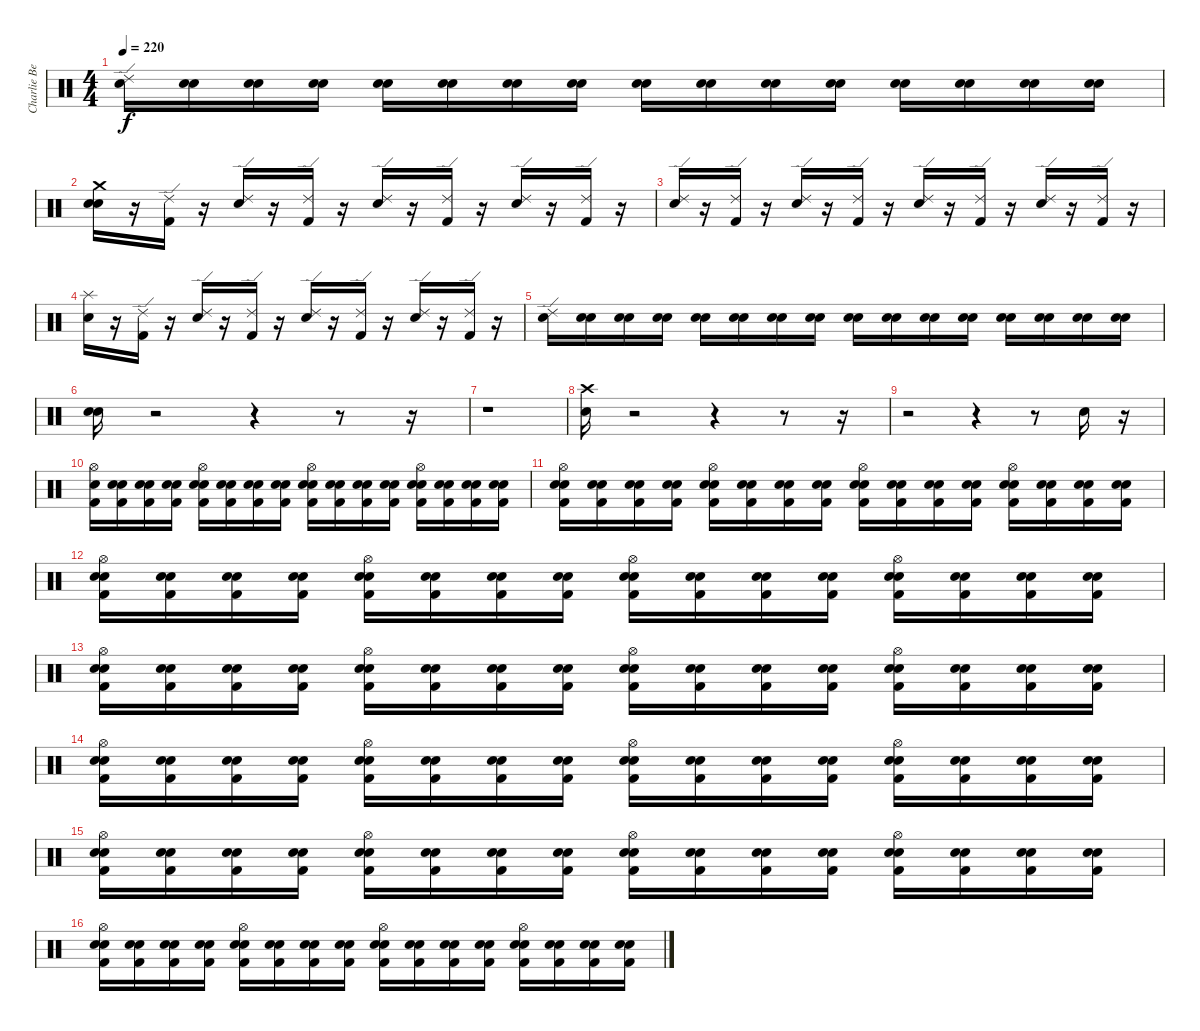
\track ("Charlie Benante" "Charlie Be") {instrument percussion}
\staff {score}
\articulation defaults
\ts (4 4)
\tempo 220
\clef neutral
\ks c
("Snare (hit) 2" "Ride (edge) 2").16{dy f} ("Snare (hit)" "Snare (hit) 2").16 ("Snare (hit)" "Snare (hit) 2").16 ("Snare (hit)" "Snare (hit) 2").16 ("Snare (hit)" "Snare (hit) 2").16 ("Snare (hit)" "Snare (hit) 2").16 ("Snare (hit)" "Snare (hit) 2").16 ("Snare (hit)" "Snare (hit) 2").16 ("Snare (hit)" "Snare (hit) 2").16 ("Snare (hit)" "Snare (hit) 2").16 ("Snare (hit)" "Snare (hit) 2").16 ("Snare (hit)" "Snare (hit) 2").16 ("Snare (hit)" "Snare (hit) 2").16 ("Snare (hit)" "Snare (hit) 2").16 ("Snare (hit)" "Snare (hit) 2").16 ("Snare (hit)" "Snare (hit) 2").16 |
("Snare (hit)" "Snare (hit) 2" "Crash medium (hit)").16 r.16 ("Kick (hit) 2" "Ride (edge) 2").16 r.16 ("Snare (hit) 2" "Ride (edge) 2").16 r.16 ("Kick (hit) 2" "Ride (edge) 2").16 r.16 ("Snare (hit) 2" "Ride (edge) 2").16 r.16 ("Kick (hit) 2" "Ride (edge) 2").16 r.16 ("Snare (hit) 2" "Ride (edge) 2").16 r.16 ("Kick (hit) 2" "Ride (edge) 2").16 r.16 |
("Snare (hit) 2" "Ride (edge) 2").16 r.16 ("Kick (hit) 2" "Ride (edge) 2").16 r.16 ("Snare (hit) 2" "Ride (edge) 2").16 r.16 ("Kick (hit) 2" "Ride (edge) 2").16 r.16 ("Snare (hit) 2" "Ride (edge) 2").16 r.16 ("Kick (hit) 2" "Ride (edge) 2").16 r.16 ("Snare (hit) 2" "Ride (edge) 2").16 r.16 ("Kick (hit) 2" "Ride (edge) 2").16 r.16 |
("Snare (hit) 2" "Splash (hit)").16 r.16 ("Kick (hit) 2" "Ride (edge) 2").16 r.16 ("Snare (hit) 2" "Ride (edge) 2").16 r.16 ("Kick (hit) 2" "Ride (edge) 2").16 r.16 ("Snare (hit) 2" "Ride (edge) 2").16 r.16 ("Kick (hit) 2" "Ride (edge) 2").16 r.16 ("Snare (hit) 2" "Ride (edge) 2").16 r.16 ("Kick (hit) 2" "Ride (edge) 2").16 r.16 |
("Snare (hit) 2" "Ride (edge) 2").16 ("Snare (hit)" "Snare (hit) 2").16 ("Snare (hit)" "Snare (hit) 2").16 ("Snare (hit)" "Snare (hit) 2").16 ("Snare (hit)" "Snare (hit) 2").16 ("Snare (hit)" "Snare (hit) 2").16 ("Snare (hit)" "Snare (hit) 2").16 ("Snare (hit)" "Snare (hit) 2").16 ("Snare (hit)" "Snare (hit) 2").16 ("Snare (hit)" "Snare (hit) 2").16 ("Snare (hit)" "Snare (hit) 2").16 ("Snare (hit)" "Snare (hit) 2").16 ("Snare (hit)" "Snare (hit) 2").16 ("Snare (hit)" "Snare (hit) 2").16 ("Snare (hit)" "Snare (hit) 2").16 ("Snare (hit)" "Snare (hit) 2").16 |
("Snare (hit)" "Snare (hit) 2").16 r.2 r.4 r.8 r.16 |
r.1 |
("Snare (hit) 2" "Crash high (hit)").16 r.2 r.4 r.8 r.16 |
r.2 r.4 r.8 "Snare (hit) 2".16 r.16 |
("Kick (hit) 2" "Snare (hit) 2" "Hi-Hat (open)").16 ("Snare (hit)" "Kick (hit) 2" "Snare (hit) 2").16 ("Snare (hit)" "Kick (hit) 2" "Snare (hit) 2").16 ("Snare (hit)" "Kick (hit) 2" "Snare (hit) 2").16 ("Snare (hit)" "Kick (hit) 2" "Snare (hit) 2" "Hi-Hat (open)").16 ("Snare (hit)" "Kick (hit) 2" "Snare (hit) 2").16 ("Snare (hit)" "Kick (hit) 2" "Snare (hit) 2").16 ("Snare (hit)" "Kick (hit) 2" "Snare (hit) 2").16 ("Snare (hit)" "Kick (hit) 2" "Snare (hit) 2" "Hi-Hat (open)").16 ("Snare (hit)" "Kick (hit) 2" "Snare (hit) 2").16 ("Snare (hit)" "Kick (hit) 2" "Snare (hit) 2").16 ("Snare (hit)" "Kick (hit) 2" "Snare (hit) 2").16 ("Snare (hit)" "Kick (hit) 2" "Snare (hit) 2" "Hi-Hat (open)").16 ("Snare (hit)" "Kick (hit) 2" "Snare (hit) 2").16 ("Snare (hit)" "Kick (hit) 2" "Snare (hit) 2").16 ("Snare (hit)" "Kick (hit) 2" "Snare (hit) 2").16 |
("Snare (hit)" "Kick (hit) 2" "Snare (hit) 2" "Hi-Hat (open)").16 ("Snare (hit)" "Kick (hit) 2" "Snare (hit) 2").16 ("Snare (hit)" "Kick (hit) 2" "Snare (hit) 2").16 ("Snare (hit)" "Kick (hit) 2" "Snare (hit) 2").16 ("Snare (hit)" "Kick (hit) 2" "Snare (hit) 2" "Hi-Hat (open)").16 ("Snare (hit)" "Kick (hit) 2" "Snare (hit) 2").16 ("Snare (hit)" "Kick (hit) 2" "Snare (hit) 2").16 ("Snare (hit)" "Kick (hit) 2" "Snare (hit) 2").16 ("Snare (hit)" "Kick (hit) 2" "Snare (hit) 2" "Hi-Hat (open)").16 ("Snare (hit)" "Kick (hit) 2" "Snare (hit) 2").16 ("Snare (hit)" "Kick (hit) 2" "Snare (hit) 2").16 ("Snare (hit)" "Kick (hit) 2" "Snare (hit) 2").16 ("Snare (hit)" "Kick (hit) 2" "Snare (hit) 2" "Hi-Hat (open)").16 ("Snare (hit)" "Kick (hit) 2" "Snare (hit) 2").16 ("Snare (hit)" "Kick (hit) 2" "Snare (hit) 2").16 ("Snare (hit)" "Kick (hit) 2" "Snare (hit) 2").16 |
("Snare (hit)" "Kick (hit) 2" "Snare (hit) 2" "Hi-Hat (open)").16 ("Snare (hit)" "Kick (hit) 2" "Snare (hit) 2").16 ("Snare (hit)" "Kick (hit) 2" "Snare (hit) 2").16 ("Snare (hit)" "Kick (hit) 2" "Snare (hit) 2").16 ("Snare (hit)" "Kick (hit) 2" "Snare (hit) 2" "Hi-Hat (open)").16 ("Snare (hit)" "Kick (hit) 2" "Snare (hit) 2").16 ("Snare (hit)" "Kick (hit) 2" "Snare (hit) 2").16 ("Snare (hit)" "Kick (hit) 2" "Snare (hit) 2").16 ("Snare (hit)" "Kick (hit) 2" "Snare (hit) 2" "Hi-Hat (open)").16 ("Snare (hit)" "Kick (hit) 2" "Snare (hit) 2").16 ("Snare (hit)" "Kick (hit) 2" "Snare (hit) 2").16 ("Snare (hit)" "Kick (hit) 2" "Snare (hit) 2").16 ("Snare (hit)" "Kick (hit) 2" "Snare (hit) 2" "Hi-Hat (open)").16 ("Snare (hit)" "Kick (hit) 2" "Snare (hit) 2").16 ("Snare (hit)" "Kick (hit) 2" "Snare (hit) 2").16 ("Snare (hit)" "Kick (hit) 2" "Snare (hit) 2").16 |
("Snare (hit)" "Kick (hit) 2" "Snare (hit) 2" "Hi-Hat (open)").16 ("Snare (hit)" "Kick (hit) 2" "Snare (hit) 2").16 ("Snare (hit)" "Kick (hit) 2" "Snare (hit) 2").16 ("Snare (hit)" "Kick (hit) 2" "Snare (hit) 2").16 ("Snare (hit)" "Kick (hit) 2" "Snare (hit) 2" "Hi-Hat (open)").16 ("Snare (hit)" "Kick (hit) 2" "Snare (hit) 2").16 ("Snare (hit)" "Kick (hit) 2" "Snare (hit) 2").16 ("Snare (hit)" "Kick (hit) 2" "Snare (hit) 2").16 ("Snare (hit)" "Kick (hit) 2" "Snare (hit) 2" "Hi-Hat (open)").16 ("Snare (hit)" "Kick (hit) 2" "Snare (hit) 2").16 ("Snare (hit)" "Kick (hit) 2" "Snare (hit) 2").16 ("Snare (hit)" "Kick (hit) 2" "Snare (hit) 2").16 ("Snare (hit)" "Kick (hit) 2" "Snare (hit) 2" "Hi-Hat (open)").16 ("Snare (hit)" "Kick (hit) 2" "Snare (hit) 2").16 ("Snare (hit)" "Kick (hit) 2" "Snare (hit) 2").16 ("Snare (hit)" "Kick (hit) 2" "Snare (hit) 2").16 |
("Snare (hit)" "Kick (hit) 2" "Snare (hit) 2" "Hi-Hat (open)").16 ("Snare (hit)" "Kick (hit) 2" "Snare (hit) 2").16 ("Snare (hit)" "Kick (hit) 2" "Snare (hit) 2").16 ("Snare (hit)" "Kick (hit) 2" "Snare (hit) 2").16 ("Snare (hit)" "Kick (hit) 2" "Snare (hit) 2" "Hi-Hat (open)").16 ("Snare (hit)" "Kick (hit) 2" "Snare (hit) 2").16 ("Snare (hit)" "Kick (hit) 2" "Snare (hit) 2").16 ("Snare (hit)" "Kick (hit) 2" "Snare (hit) 2").16 ("Snare (hit)" "Kick (hit) 2" "Snare (hit) 2" "Hi-Hat (open)").16 ("Snare (hit)" "Kick (hit) 2" "Snare (hit) 2").16 ("Snare (hit)" "Kick (hit) 2" "Snare (hit) 2").16 ("Snare (hit)" "Kick (hit) 2" "Snare (hit) 2").16 ("Snare (hit)" "Kick (hit) 2" "Snare (hit) 2" "Hi-Hat (open)").16 ("Snare (hit)" "Kick (hit) 2" "Snare (hit) 2").16 ("Snare (hit)" "Kick (hit) 2" "Snare (hit) 2").16 ("Snare (hit)" "Kick (hit) 2" "Snare (hit) 2").16 |
("Snare (hit)" "Kick (hit) 2" "Snare (hit) 2" "Hi-Hat (open)").16 ("Snare (hit)" "Kick (hit) 2" "Snare (hit) 2").16 ("Snare (hit)" "Kick (hit) 2" "Snare (hit) 2").16 ("Snare (hit)" "Kick (hit) 2" "Snare (hit) 2").16 ("Snare (hit)" "Kick (hit) 2" "Snare (hit) 2" "Hi-Hat (open)").16 ("Snare (hit)" "Kick (hit) 2" "Snare (hit) 2").16 ("Snare (hit)" "Kick (hit) 2" "Snare (hit) 2").16 ("Snare (hit)" "Kick (hit) 2" "Snare (hit) 2").16 ("Snare (hit)" "Kick (hit) 2" "Snare (hit) 2" "Hi-Hat (open)").16 ("Snare (hit)" "Kick (hit) 2" "Snare (hit) 2").16 ("Snare (hit)" "Kick (hit) 2" "Snare (hit) 2").16 ("Snare (hit)" "Kick (hit) 2" "Snare (hit) 2").16 ("Snare (hit)" "Kick (hit) 2" "Snare (hit) 2" "Hi-Hat (open)").16 ("Snare (hit)" "Kick (hit) 2" "Snare (hit) 2").16 ("Snare (hit)" "Kick (hit) 2" "Snare (hit) 2").16 ("Snare (hit)" "Kick (hit) 2" "Snare (hit) 2").16 |
("Snare (hit)" "Kick (hit) 2" "Snare (hit) 2" "Hi-Hat (open)").16 ("Snare (hit)" "Kick (hit) 2" "Snare (hit) 2").16 ("Snare (hit)" "Kick (hit) 2" "Snare (hit) 2").16 ("Snare (hit)" "Kick (hit) 2" "Snare (hit) 2").16 ("Snare (hit)" "Kick (hit) 2" "Snare (hit) 2" "Hi-Hat (open)").16 ("Snare (hit)" "Kick (hit) 2" "Snare (hit) 2").16 ("Snare (hit)" "Kick (hit) 2" "Snare (hit) 2").16 ("Snare (hit)" "Kick (hit) 2" "Snare (hit) 2").16 ("Snare (hit)" "Kick (hit) 2" "Snare (hit) 2" "Hi-Hat (open)").16 ("Snare (hit)" "Kick (hit) 2" "Snare (hit) 2").16 ("Snare (hit)" "Kick (hit) 2" "Snare (hit) 2").16 ("Snare (hit)" "Kick (hit) 2" "Snare (hit) 2").16 ("Snare (hit)" "Kick (hit) 2" "Snare (hit) 2" "Hi-Hat (open)").16 ("Snare (hit)" "Kick (hit) 2" "Snare (hit) 2").16 ("Snare (hit)" "Kick (hit) 2" "Snare (hit) 2").16 ("Snare (hit)" "Kick (hit) 2" "Snare (hit) 2").16
